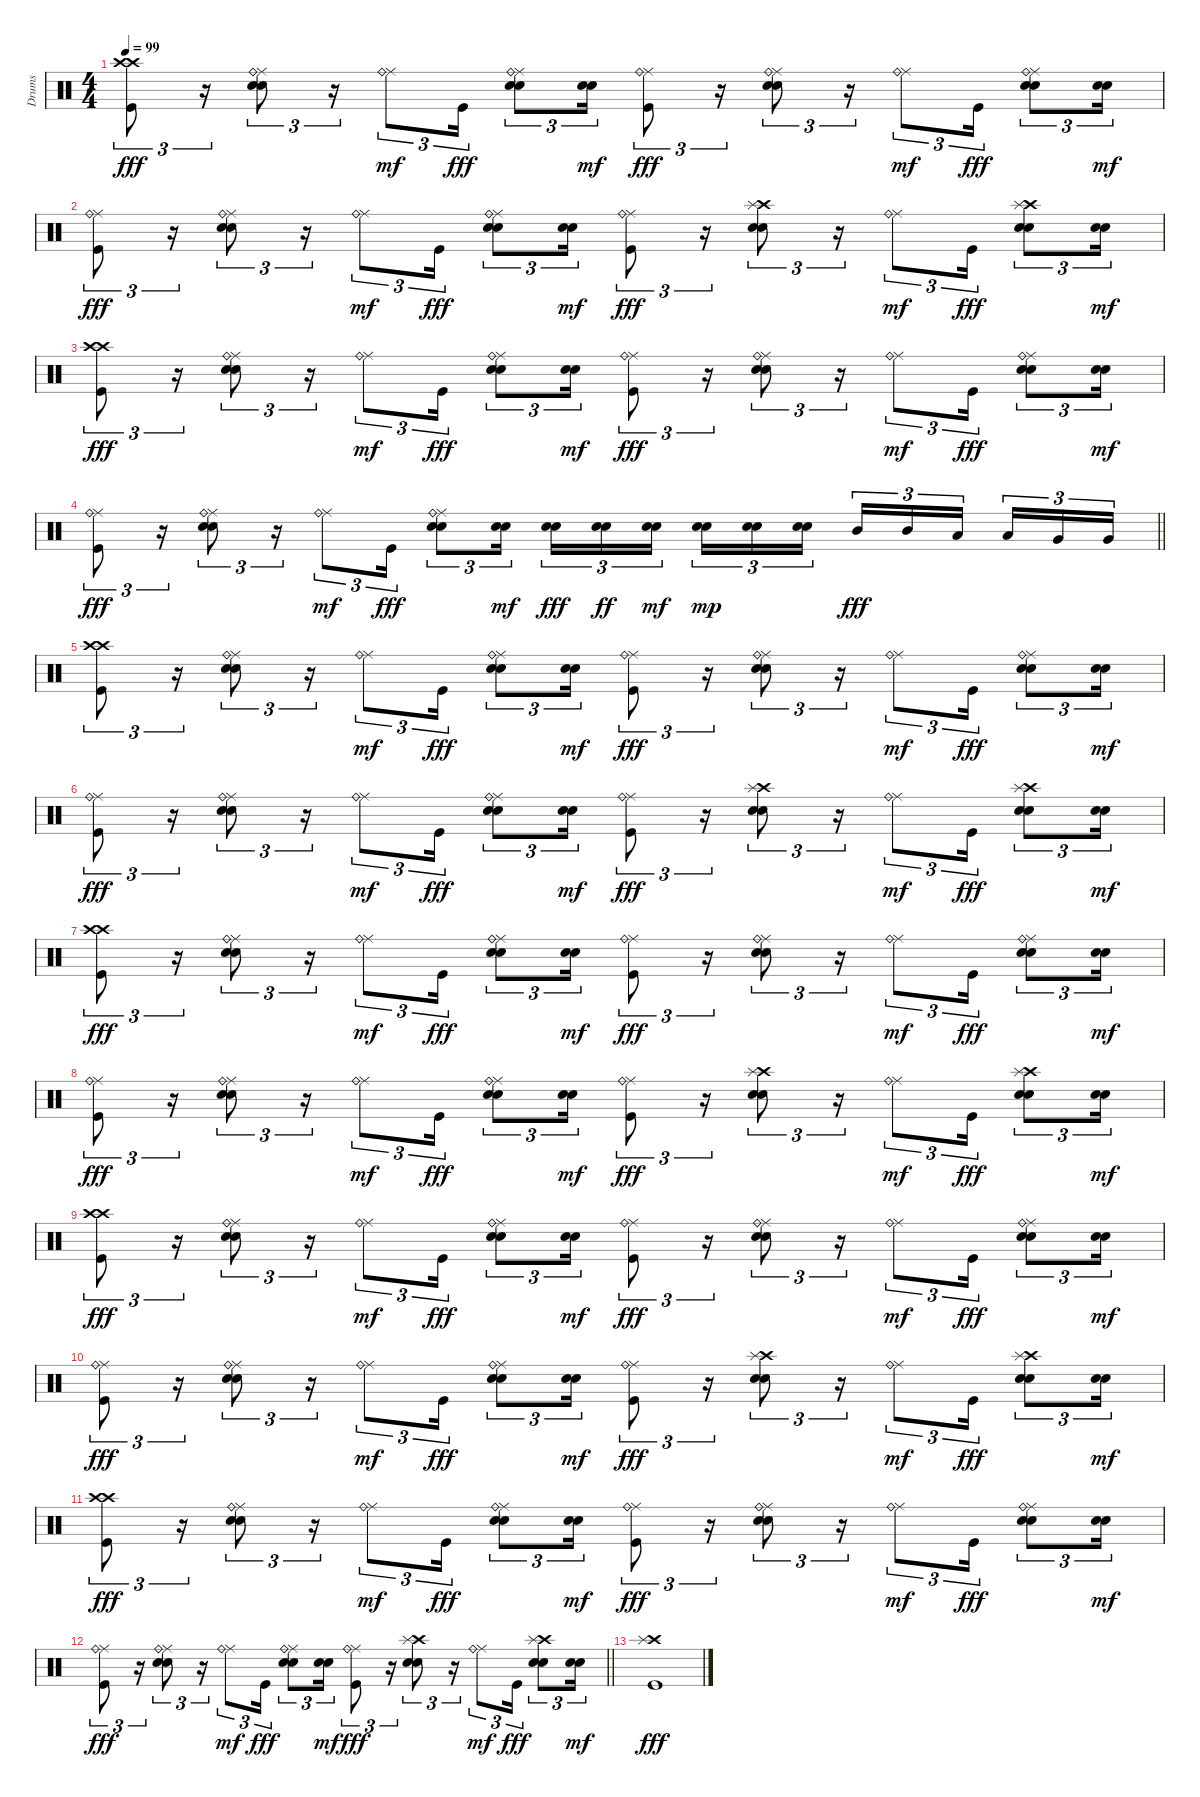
\track ("Drums" "Drums") {instrument percussion}
\staff {score}
\articulation defaults
\ts (4 4)
\tempo 99
\clef neutral
\ks c
("Crash high (hit)" "Crash high (hit)" "Kick (hit)").8{tu (3 2) dy fff} r.16{tu (3 2)} ("Ride (middle)" "Ride (bell)" "Snare (hit) 2" "Electric Snare (hit)").8{tu (3 2)} r.16{tu (3 2)} ("Ride (middle)" "Ride (bell)").8{tu (3 2) dy mf} "Kick (hit)".16{tu (3 2) dy fff} ("Ride (middle)" "Ride (bell)" "Snare (hit) 2" "Electric Snare (hit)").8{tu (3 2)} ("Snare (hit) 2" "Electric Snare (hit)").16{tu (3 2) dy mf} ("Ride (middle)" "Ride (bell)" "Kick (hit)").8{tu (3 2) dy fff} r.16{tu (3 2)} ("Ride (middle)" "Ride (bell)" "Snare (hit) 2" "Electric Snare (hit)").8{tu (3 2)} r.16{tu (3 2)} ("Ride (middle)" "Ride (bell)").8{tu (3 2) dy mf} "Kick (hit)".16{tu (3 2) dy fff} ("Ride (middle)" "Ride (bell)" "Snare (hit) 2" "Electric Snare (hit)").8{tu (3 2)} ("Snare (hit) 2" "Electric Snare (hit)").16{tu (3 2) dy mf} |
("Ride (middle)" "Ride (bell)" "Kick (hit)").8{tu (3 2) dy fff} r.16{tu (3 2)} ("Ride (middle)" "Ride (bell)" "Snare (hit) 2" "Electric Snare (hit)").8{tu (3 2)} r.16{tu (3 2)} ("Ride (middle)" "Ride (bell)").8{tu (3 2) dy mf} "Kick (hit)".16{tu (3 2) dy fff} ("Ride (middle)" "Ride (bell)" "Snare (hit) 2" "Electric Snare (hit)").8{tu (3 2)} ("Snare (hit) 2" "Electric Snare (hit)").16{tu (3 2) dy mf} ("Ride (middle)" "Ride (bell)" "Kick (hit)").8{tu (3 2) dy fff} r.16{tu (3 2)} ("Crash high (hit)" "Splash (hit)" "Snare (hit) 2" "Electric Snare (hit)").8{tu (3 2)} r.16{tu (3 2)} ("Ride (middle)" "Ride (bell)").8{tu (3 2) dy mf} "Kick (hit)".16{tu (3 2) dy fff} ("Crash high (hit)" "Splash (hit)" "Snare (hit) 2" "Electric Snare (hit)").8{tu (3 2)} ("Snare (hit) 2" "Electric Snare (hit)").16{tu (3 2) dy mf} |
("Crash high (hit)" "Crash high (hit)" "Kick (hit)").8{tu (3 2) dy fff} r.16{tu (3 2)} ("Ride (middle)" "Ride (bell)" "Snare (hit) 2" "Electric Snare (hit)").8{tu (3 2)} r.16{tu (3 2)} ("Ride (middle)" "Ride (bell)").8{tu (3 2) dy mf} "Kick (hit)".16{tu (3 2) dy fff} ("Ride (middle)" "Ride (bell)" "Snare (hit) 2" "Electric Snare (hit)").8{tu (3 2)} ("Snare (hit) 2" "Electric Snare (hit)").16{tu (3 2) dy mf} ("Ride (middle)" "Ride (bell)" "Kick (hit)").8{tu (3 2) dy fff} r.16{tu (3 2)} ("Ride (middle)" "Ride (bell)" "Snare (hit) 2" "Electric Snare (hit)").8{tu (3 2)} r.16{tu (3 2)} ("Ride (middle)" "Ride (bell)").8{tu (3 2) dy mf} "Kick (hit)".16{tu (3 2) dy fff} ("Ride (middle)" "Ride (bell)" "Snare (hit) 2" "Electric Snare (hit)").8{tu (3 2)} ("Snare (hit) 2" "Electric Snare (hit)").16{tu (3 2) dy mf} |
\barLineRight lightlight
("Ride (middle)" "Ride (bell)" "Kick (hit)").8{tu (3 2) dy fff} r.16{tu (3 2)} ("Ride (middle)" "Ride (bell)" "Snare (hit) 2" "Electric Snare (hit)").8{tu (3 2)} r.16{tu (3 2)} ("Ride (middle)" "Ride (bell)").8{tu (3 2) dy mf} "Kick (hit)".16{tu (3 2) dy fff} ("Ride (middle)" "Ride (bell)" "Snare (hit) 2" "Electric Snare (hit)").8{tu (3 2)} ("Snare (hit) 2" "Electric Snare (hit)").16{tu (3 2) dy mf} ("Snare (hit) 2" "Electric Snare (hit)").16{tu (3 2) dy fff} ("Snare (hit) 2" "Electric Snare (hit)").16{tu (3 2) dy ff} ("Snare (hit) 2" "Electric Snare (hit)").16{tu (3 2) dy mf beam splitsecondary} ("Snare (hit) 2" "Electric Snare (hit)").16{tu (3 2) dy mp} ("Snare (hit) 2" "Electric Snare (hit)").16{tu (3 2)} ("Snare (hit) 2" "Electric Snare (hit)").16{tu (3 2)} "Mid Tom (hit)".16{tu (3 2) dy fff} "Mid Tom (hit)".16{tu (3 2)} "Low Tom (hit)".16{tu (3 2) beam splitsecondary} "Low Tom (hit)".16{tu (3 2)} "Very Low Tom (hit)".16{tu (3 2)} "Very Low Tom (hit)".16{tu (3 2)} |
("Crash high (hit)" "Crash high (hit)" "Kick (hit)").8{tu (3 2)} r.16{tu (3 2)} ("Ride (middle)" "Ride (bell)" "Snare (hit) 2" "Electric Snare (hit)").8{tu (3 2)} r.16{tu (3 2)} ("Ride (middle)" "Ride (bell)").8{tu (3 2) dy mf} "Kick (hit)".16{tu (3 2) dy fff} ("Ride (middle)" "Ride (bell)" "Snare (hit) 2" "Electric Snare (hit)").8{tu (3 2)} ("Snare (hit) 2" "Electric Snare (hit)").16{tu (3 2) dy mf} ("Ride (middle)" "Ride (bell)" "Kick (hit)").8{tu (3 2) dy fff} r.16{tu (3 2)} ("Ride (middle)" "Ride (bell)" "Snare (hit) 2" "Electric Snare (hit)").8{tu (3 2)} r.16{tu (3 2)} ("Ride (middle)" "Ride (bell)").8{tu (3 2) dy mf} "Kick (hit)".16{tu (3 2) dy fff} ("Ride (middle)" "Ride (bell)" "Snare (hit) 2" "Electric Snare (hit)").8{tu (3 2)} ("Snare (hit) 2" "Electric Snare (hit)").16{tu (3 2) dy mf} |
("Ride (middle)" "Ride (bell)" "Kick (hit)").8{tu (3 2) dy fff} r.16{tu (3 2)} ("Ride (middle)" "Ride (bell)" "Snare (hit) 2" "Electric Snare (hit)").8{tu (3 2)} r.16{tu (3 2)} ("Ride (middle)" "Ride (bell)").8{tu (3 2) dy mf} "Kick (hit)".16{tu (3 2) dy fff} ("Ride (middle)" "Ride (bell)" "Snare (hit) 2" "Electric Snare (hit)").8{tu (3 2)} ("Snare (hit) 2" "Electric Snare (hit)").16{tu (3 2) dy mf} ("Ride (middle)" "Ride (bell)" "Kick (hit)").8{tu (3 2) dy fff} r.16{tu (3 2)} ("Crash high (hit)" "Splash (hit)" "Snare (hit) 2" "Electric Snare (hit)").8{tu (3 2)} r.16{tu (3 2)} ("Ride (middle)" "Ride (bell)").8{tu (3 2) dy mf} "Kick (hit)".16{tu (3 2) dy fff} ("Crash high (hit)" "Splash (hit)" "Snare (hit) 2" "Electric Snare (hit)").8{tu (3 2)} ("Snare (hit) 2" "Electric Snare (hit)").16{tu (3 2) dy mf} |
("Crash high (hit)" "Crash high (hit)" "Kick (hit)").8{tu (3 2) dy fff} r.16{tu (3 2)} ("Ride (middle)" "Ride (bell)" "Snare (hit) 2" "Electric Snare (hit)").8{tu (3 2)} r.16{tu (3 2)} ("Ride (middle)" "Ride (bell)").8{tu (3 2) dy mf} "Kick (hit)".16{tu (3 2) dy fff} ("Ride (middle)" "Ride (bell)" "Snare (hit) 2" "Electric Snare (hit)").8{tu (3 2)} ("Snare (hit) 2" "Electric Snare (hit)").16{tu (3 2) dy mf} ("Ride (middle)" "Ride (bell)" "Kick (hit)").8{tu (3 2) dy fff} r.16{tu (3 2)} ("Ride (middle)" "Ride (bell)" "Snare (hit) 2" "Electric Snare (hit)").8{tu (3 2)} r.16{tu (3 2)} ("Ride (middle)" "Ride (bell)").8{tu (3 2) dy mf} "Kick (hit)".16{tu (3 2) dy fff} ("Ride (middle)" "Ride (bell)" "Snare (hit) 2" "Electric Snare (hit)").8{tu (3 2)} ("Snare (hit) 2" "Electric Snare (hit)").16{tu (3 2) dy mf} |
("Ride (middle)" "Ride (bell)" "Kick (hit)").8{tu (3 2) dy fff} r.16{tu (3 2)} ("Ride (middle)" "Ride (bell)" "Snare (hit) 2" "Electric Snare (hit)").8{tu (3 2)} r.16{tu (3 2)} ("Ride (middle)" "Ride (bell)").8{tu (3 2) dy mf} "Kick (hit)".16{tu (3 2) dy fff} ("Ride (middle)" "Ride (bell)" "Snare (hit) 2" "Electric Snare (hit)").8{tu (3 2)} ("Snare (hit) 2" "Electric Snare (hit)").16{tu (3 2) dy mf} ("Ride (middle)" "Ride (bell)" "Kick (hit)").8{tu (3 2) dy fff} r.16{tu (3 2)} ("Crash high (hit)" "Splash (hit)" "Snare (hit) 2" "Electric Snare (hit)").8{tu (3 2)} r.16{tu (3 2)} ("Ride (middle)" "Ride (bell)").8{tu (3 2) dy mf} "Kick (hit)".16{tu (3 2) dy fff} ("Crash high (hit)" "Splash (hit)" "Snare (hit) 2" "Electric Snare (hit)").8{tu (3 2)} ("Snare (hit) 2" "Electric Snare (hit)").16{tu (3 2) dy mf} |
("Crash high (hit)" "Crash high (hit)" "Kick (hit)").8{tu (3 2) dy fff} r.16{tu (3 2)} ("Ride (middle)" "Ride (bell)" "Snare (hit) 2" "Electric Snare (hit)").8{tu (3 2)} r.16{tu (3 2)} ("Ride (middle)" "Ride (bell)").8{tu (3 2) dy mf} "Kick (hit)".16{tu (3 2) dy fff} ("Ride (middle)" "Ride (bell)" "Snare (hit) 2" "Electric Snare (hit)").8{tu (3 2)} ("Snare (hit) 2" "Electric Snare (hit)").16{tu (3 2) dy mf} ("Ride (middle)" "Ride (bell)" "Kick (hit)").8{tu (3 2) dy fff} r.16{tu (3 2)} ("Ride (middle)" "Ride (bell)" "Snare (hit) 2" "Electric Snare (hit)").8{tu (3 2)} r.16{tu (3 2)} ("Ride (middle)" "Ride (bell)").8{tu (3 2) dy mf} "Kick (hit)".16{tu (3 2) dy fff} ("Ride (middle)" "Ride (bell)" "Snare (hit) 2" "Electric Snare (hit)").8{tu (3 2)} ("Snare (hit) 2" "Electric Snare (hit)").16{tu (3 2) dy mf} |
("Ride (middle)" "Ride (bell)" "Kick (hit)").8{tu (3 2) dy fff} r.16{tu (3 2)} ("Ride (middle)" "Ride (bell)" "Snare (hit) 2" "Electric Snare (hit)").8{tu (3 2)} r.16{tu (3 2)} ("Ride (middle)" "Ride (bell)").8{tu (3 2) dy mf} "Kick (hit)".16{tu (3 2) dy fff} ("Ride (middle)" "Ride (bell)" "Snare (hit) 2" "Electric Snare (hit)").8{tu (3 2)} ("Snare (hit) 2" "Electric Snare (hit)").16{tu (3 2) dy mf} ("Ride (middle)" "Ride (bell)" "Kick (hit)").8{tu (3 2) dy fff} r.16{tu (3 2)} ("Crash high (hit)" "Splash (hit)" "Snare (hit) 2" "Electric Snare (hit)").8{tu (3 2)} r.16{tu (3 2)} ("Ride (middle)" "Ride (bell)").8{tu (3 2) dy mf} "Kick (hit)".16{tu (3 2) dy fff} ("Crash high (hit)" "Splash (hit)" "Snare (hit) 2" "Electric Snare (hit)").8{tu (3 2)} ("Snare (hit) 2" "Electric Snare (hit)").16{tu (3 2) dy mf} |
("Crash high (hit)" "Crash high (hit)" "Kick (hit)").8{tu (3 2) dy fff} r.16{tu (3 2)} ("Ride (middle)" "Ride (bell)" "Snare (hit) 2" "Electric Snare (hit)").8{tu (3 2)} r.16{tu (3 2)} ("Ride (middle)" "Ride (bell)").8{tu (3 2) dy mf} "Kick (hit)".16{tu (3 2) dy fff} ("Ride (middle)" "Ride (bell)" "Snare (hit) 2" "Electric Snare (hit)").8{tu (3 2)} ("Snare (hit) 2" "Electric Snare (hit)").16{tu (3 2) dy mf} ("Ride (middle)" "Ride (bell)" "Kick (hit)").8{tu (3 2) dy fff} r.16{tu (3 2)} ("Ride (middle)" "Ride (bell)" "Snare (hit) 2" "Electric Snare (hit)").8{tu (3 2)} r.16{tu (3 2)} ("Ride (middle)" "Ride (bell)").8{tu (3 2) dy mf} "Kick (hit)".16{tu (3 2) dy fff} ("Ride (middle)" "Ride (bell)" "Snare (hit) 2" "Electric Snare (hit)").8{tu (3 2)} ("Snare (hit) 2" "Electric Snare (hit)").16{tu (3 2) dy mf} |
\barLineRight lightlight
("Ride (middle)" "Ride (bell)" "Kick (hit)").8{tu (3 2) dy fff} r.16{tu (3 2)} ("Ride (middle)" "Ride (bell)" "Snare (hit) 2" "Electric Snare (hit)").8{tu (3 2)} r.16{tu (3 2)} ("Ride (middle)" "Ride (bell)").8{tu (3 2) dy mf} "Kick (hit)".16{tu (3 2) dy fff} ("Ride (middle)" "Ride (bell)" "Snare (hit) 2" "Electric Snare (hit)").8{tu (3 2)} ("Snare (hit) 2" "Electric Snare (hit)").16{tu (3 2) dy mf} ("Ride (middle)" "Ride (bell)" "Kick (hit)").8{tu (3 2) dy fff} r.16{tu (3 2)} ("Crash high (hit)" "Splash (hit)" "Snare (hit) 2" "Electric Snare (hit)").8{tu (3 2)} r.16{tu (3 2)} ("Ride (middle)" "Ride (bell)").8{tu (3 2) dy mf} "Kick (hit)".16{tu (3 2) dy fff} ("Crash high (hit)" "Splash (hit)" "Snare (hit) 2" "Electric Snare (hit)").8{tu (3 2)} ("Snare (hit) 2" "Electric Snare (hit)").16{tu (3 2) dy mf} |
("Crash high (hit)" "Splash (hit)" "Kick (hit)").1{dy fff}
